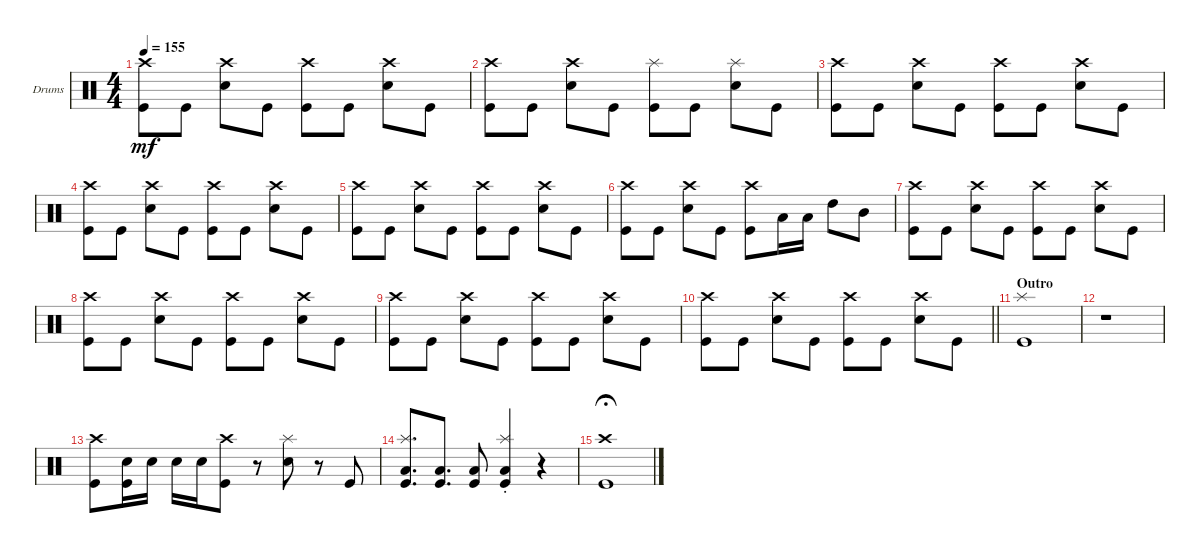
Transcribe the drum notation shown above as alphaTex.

\defaultSystemsLayout 4
\bracketExtendMode groupsimilarinstruments
\firstSystemTrackNameOrientation horizontal
\otherSystemsTrackNameOrientation horizontal
\track ("Drums" "Drums") {instrument percussion}
\staff {score}
\articulation defaults
\ts (4 4)
\tempo 155
\clef neutral
\ks c
("Kick (hit)" "Crash high (hit)").8{dy mf} "Kick (hit)".8 ("Snare (hit) 2" "Crash high (hit)").8 "Kick (hit)".8 ("Kick (hit)" "Crash high (hit)").8 "Kick (hit)".8 ("Snare (hit) 2" "Crash high (hit)").8 "Kick (hit)".8 |
("Kick (hit)" "Crash high (hit)").8 "Kick (hit)".8 ("Snare (hit) 2" "Crash high (hit)").8 "Kick (hit)".8 ("Kick (hit)" "Splash (hit)").8 "Kick (hit)".8 ("Snare (hit) 2" "Splash (hit)").8 "Kick (hit)".8 |
("Kick (hit)" "Crash high (hit)").8 "Kick (hit)".8 ("Snare (hit) 2" "Crash high (hit)").8 "Kick (hit)".8 ("Kick (hit)" "Crash high (hit)").8 "Kick (hit)".8 ("Snare (hit) 2" "Crash high (hit)").8 "Kick (hit)".8 |
("Kick (hit)" "Crash high (hit)").8 "Kick (hit)".8 ("Snare (hit) 2" "Crash high (hit)").8 "Kick (hit)".8 ("Kick (hit)" "Crash high (hit)").8 "Kick (hit)".8 ("Snare (hit) 2" "Crash high (hit)").8 "Kick (hit)".8 |
("Kick (hit)" "Crash high (hit)").8 "Kick (hit)".8 ("Snare (hit) 2" "Crash high (hit)").8 "Kick (hit)".8 ("Kick (hit)" "Crash high (hit)").8 "Kick (hit)".8 ("Snare (hit) 2" "Crash high (hit)").8 "Kick (hit)".8 |
("Kick (hit)" "Crash high (hit)").8 "Kick (hit)".8 ("Snare (hit) 2" "Crash high (hit)").8 "Kick (hit)".8 ("Kick (hit)" "Crash high (hit)").8 "Low Tom (hit)".16 "Low Tom (hit)".16 "High Tom (hit)".8 "Mid Tom (hit)".8 |
("Kick (hit)" "Crash high (hit)").8 "Kick (hit)".8 ("Snare (hit) 2" "Crash high (hit)").8 "Kick (hit)".8 ("Kick (hit)" "Crash high (hit)").8 "Kick (hit)".8 ("Snare (hit) 2" "Crash high (hit)").8 "Kick (hit)".8 |
("Kick (hit)" "Crash high (hit)").8 "Kick (hit)".8 ("Snare (hit) 2" "Crash high (hit)").8 "Kick (hit)".8 ("Kick (hit)" "Crash high (hit)").8 "Kick (hit)".8 ("Snare (hit) 2" "Crash high (hit)").8 "Kick (hit)".8 |
("Kick (hit)" "Crash high (hit)").8 "Kick (hit)".8 ("Snare (hit) 2" "Crash high (hit)").8 "Kick (hit)".8 ("Kick (hit)" "Crash high (hit)").8 "Kick (hit)".8 ("Snare (hit) 2" "Crash high (hit)").8 "Kick (hit)".8 |
\barLineRight lightlight
("Kick (hit)" "Crash high (hit)").8 "Kick (hit)".8 ("Snare (hit) 2" "Crash high (hit)").8 "Kick (hit)".8 ("Kick (hit)" "Crash high (hit)").8 "Kick (hit)".8 ("Snare (hit) 2" "Crash high (hit)").8 "Kick (hit)".8 |
\section ("" "Outro")
("Kick (hit)" "Splash (hit)").1 |
r.1 |
("Kick (hit)" "Crash high (hit)").8 ("Kick (hit)" "Snare (hit) 2").16 "Snare (hit) 2".16 "Snare (hit) 2".16 "Snare (hit) 2".16 ("Kick (hit)" "Crash high (hit)").8 r.8 ("Snare (hit) 2" "Splash (hit)").8 r.8 "Kick (hit)".8 |
("Low Tom (hit)" "Kick (hit)" "Splash (hit)").8{d} ("Low Tom (hit)" "Kick (hit)").8{d} ("Low Tom (hit)" "Kick (hit)").8 ("Low Tom (hit)"{st} "Kick (hit)"{st} "Splash (hit)"{st}).4 r.4 |
("Kick (hit)" "Crash high (hit)").1{fermata (medium 1)}
